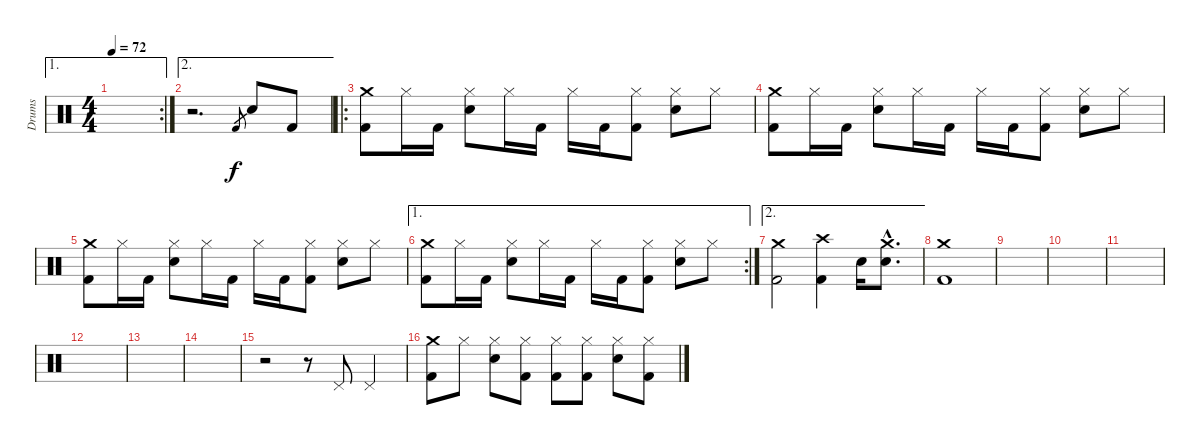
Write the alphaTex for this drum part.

\track ("Drums" "Drums") {instrument percussion}
\staff {score}
\articulation defaults
\ae 1
\rc 2
\ts (4 4)
\tempo 72
\clef neutral
\ks c
|
\ae 2
r.2{d volume 13} "Kick (hit) 2".8{gr} "Electric Snare (hit)".8 "Kick (hit) 2".8 |
\ro
("Crash medium (hit)" "Kick (hit) 2").8 "Hi-Hat (closed)".16 "Kick (hit) 2".16 ("Hi-Hat (closed)" "Electric Snare (hit)").8 "Hi-Hat (closed)".16 "Kick (hit) 2".16 "Hi-Hat (closed)".16 "Kick (hit) 2".16 ("Hi-Hat (closed)" "Kick (hit) 2").8 ("Hi-Hat (closed)" "Electric Snare (hit)").8 "Hi-Hat (closed)".8 |
("Crash medium (hit)" "Kick (hit) 2").8 "Hi-Hat (closed)".16 "Kick (hit) 2".16 ("Hi-Hat (closed)" "Electric Snare (hit)").8 "Hi-Hat (closed)".16 "Kick (hit) 2".16 "Hi-Hat (closed)".16 "Kick (hit) 2".16 ("Hi-Hat (closed)" "Kick (hit) 2").8 ("Hi-Hat (closed)" "Electric Snare (hit)").8 "Hi-Hat (closed)".8 |
("Crash medium (hit)" "Kick (hit) 2").8 "Hi-Hat (closed)".16 "Kick (hit) 2".16 ("Hi-Hat (closed)" "Electric Snare (hit)").8 "Hi-Hat (closed)".16 "Kick (hit) 2".16 "Hi-Hat (closed)".16 "Kick (hit) 2".16 ("Hi-Hat (closed)" "Kick (hit) 2").8 ("Hi-Hat (closed)" "Electric Snare (hit)").8 "Hi-Hat (closed)".8 |
\ae 1
\rc 2
("Crash medium (hit)" "Kick (hit) 2").8 "Hi-Hat (closed)".16 "Kick (hit) 2".16 ("Hi-Hat (closed)" "Electric Snare (hit)").8 "Hi-Hat (closed)".16 "Kick (hit) 2".16 "Hi-Hat (closed)".16 "Kick (hit) 2".16 ("Hi-Hat (closed)" "Kick (hit) 2").8 ("Hi-Hat (closed)" "Electric Snare (hit)").8 "Hi-Hat (closed)".8 |
\ae 2
("Crash medium (hit)" "Kick (hit) 2").2 ("Crash high (hit)" "Kick (hit) 2").4 "Electric Snare (hit)".16 ("Crash medium (hit)"{hac} "Electric Snare (hit)"{hac}).8{d} |
("Crash medium (hit)" "Kick (hit) 2").1 |
|
|
|
|
|
|
r.2 r.8 "Pedal Hi-Hat (hit)".8 "Pedal Hi-Hat (hit)".4 |
("Crash medium (hit)" "Kick (hit) 2").8 "Hi-Hat (closed)".8 ("Hi-Hat (closed)" "Electric Snare (hit)").8 ("Hi-Hat (closed)" "Kick (hit) 2").8 ("Hi-Hat (closed)" "Kick (hit) 2").8 ("Hi-Hat (closed)" "Kick (hit) 2").8 ("Hi-Hat (closed)" "Electric Snare (hit)").8 ("Hi-Hat (closed)" "Kick (hit) 2").8
